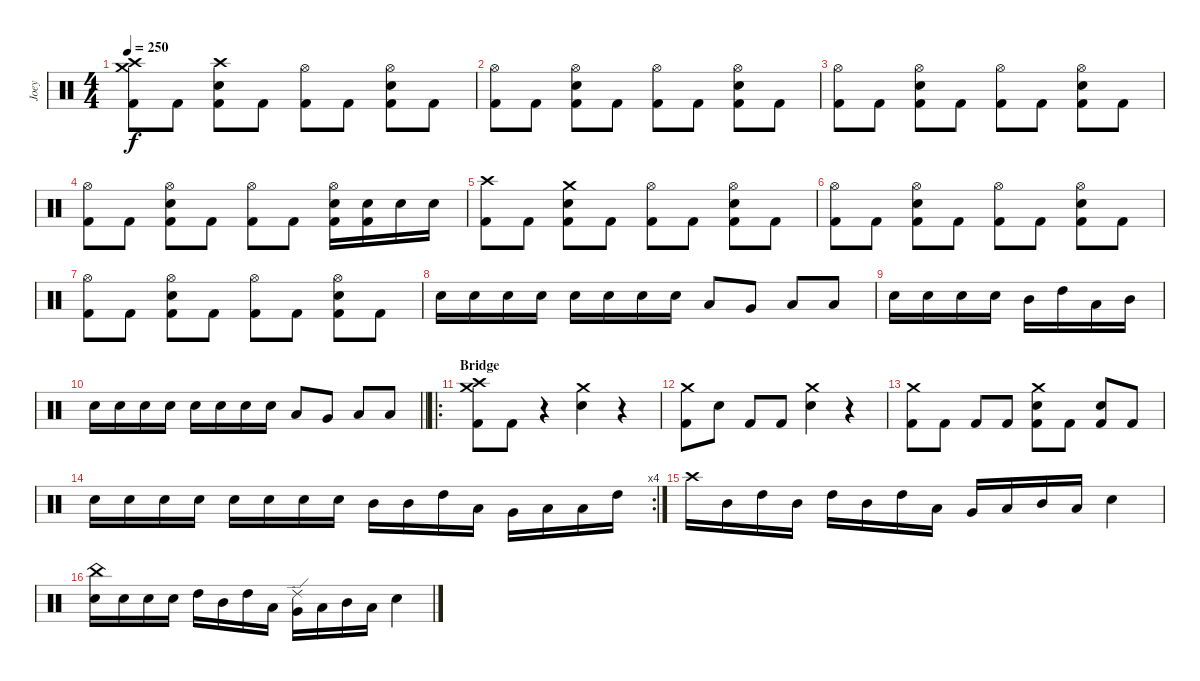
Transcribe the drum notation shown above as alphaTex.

\track ("Joey" "Joey") {instrument percussion}
\staff {score}
\articulation defaults
\ts (4 4)
\tempo 250
\clef neutral
\ks c
("Crash high (hit)" "Crash medium (hit)" "Kick (hit) 2").8{dy f} "Kick (hit) 2".8 ("Crash high (hit)" "Snare (hit) 2" "Kick (hit) 2").8 "Kick (hit) 2".8 ("Hi-Hat (open)" "Kick (hit) 2").8 "Kick (hit) 2".8 ("Hi-Hat (open)" "Snare (hit) 2" "Kick (hit) 2").8 "Kick (hit) 2".8 |
("Hi-Hat (open)" "Kick (hit) 2").8 "Kick (hit) 2".8 ("Hi-Hat (open)" "Snare (hit) 2" "Kick (hit) 2").8 "Kick (hit) 2".8 ("Hi-Hat (open)" "Kick (hit) 2").8 "Kick (hit) 2".8 ("Hi-Hat (open)" "Snare (hit) 2" "Kick (hit) 2").8 "Kick (hit) 2".8 |
("Hi-Hat (open)" "Kick (hit) 2").8 "Kick (hit) 2".8 ("Hi-Hat (open)" "Snare (hit) 2" "Kick (hit) 2").8 "Kick (hit) 2".8 ("Hi-Hat (open)" "Kick (hit) 2").8 "Kick (hit) 2".8 ("Hi-Hat (open)" "Snare (hit) 2" "Kick (hit) 2").8 "Kick (hit) 2".8 |
("Hi-Hat (open)" "Kick (hit) 2").8 "Kick (hit) 2".8 ("Hi-Hat (open)" "Snare (hit) 2" "Kick (hit) 2").8 "Kick (hit) 2".8 ("Hi-Hat (open)" "Kick (hit) 2").8 "Kick (hit) 2".8 ("Hi-Hat (open)" "Snare (hit) 2" "Kick (hit) 2").16 ("Snare (hit) 2" "Kick (hit) 2").16 "Snare (hit) 2".16 "Snare (hit) 2".16 |
("Crash high (hit)" "Kick (hit) 2").8 "Kick (hit) 2".8 ("Crash medium (hit)" "Snare (hit) 2" "Kick (hit) 2").8 "Kick (hit) 2".8 ("Hi-Hat (open)" "Kick (hit) 2").8 "Kick (hit) 2".8 ("Hi-Hat (open)" "Snare (hit) 2" "Kick (hit) 2").8 "Kick (hit) 2".8 |
("Hi-Hat (open)" "Kick (hit) 2").8 "Kick (hit) 2".8 ("Hi-Hat (open)" "Snare (hit) 2" "Kick (hit) 2").8 "Kick (hit) 2".8 ("Hi-Hat (open)" "Kick (hit) 2").8 "Kick (hit) 2".8 ("Hi-Hat (open)" "Snare (hit) 2" "Kick (hit) 2").8 "Kick (hit) 2".8 |
("Hi-Hat (open)" "Kick (hit) 2").8 "Kick (hit) 2".8 ("Hi-Hat (open)" "Snare (hit) 2" "Kick (hit) 2").8 "Kick (hit) 2".8 ("Hi-Hat (open)" "Kick (hit) 2").8 "Kick (hit) 2".8 ("Hi-Hat (open)" "Snare (hit) 2" "Kick (hit) 2").8 "Kick (hit) 2".8 |
"Snare (hit) 2".16 "Snare (hit) 2".16 "Snare (hit) 2".16 "Snare (hit) 2".16 "Snare (hit) 2".16 "Snare (hit) 2".16 "Snare (hit) 2".16 "Snare (hit) 2".16 "Low Tom (hit)".8 "Very Low Tom (hit)".8 "Low Floor Tom (hit)".8 "Low Tom (hit)".8 |
"Snare (hit) 2".16 "Snare (hit) 2".16 "Snare (hit) 2".16 "Snare (hit) 2".16 "Mid Tom (hit)".16 "High Tom (hit)".16 "Low Floor Tom (hit)".16 "Mid Tom (hit)".16 |
\barLineRight lightlight "Snare (hit) 2".16 "Snare (hit) 2".16 "Snare (hit) 2".16 "Snare (hit) 2".16 "Snare (hit) 2".16 "Snare (hit) 2".16 "Snare (hit) 2".16 "Snare (hit) 2".16 "Low Tom (hit)".8 "Very Low Tom (hit)".8 "Low Floor Tom (hit)".8 "Low Tom (hit)".8
|
\ro
\section ("" "Bridge")
("Crash high (hit)" "Crash medium (hit)" "Kick (hit) 2").8 "Kick (hit) 2".8 r.4 ("Crash medium (hit)" "Snare (hit) 2").4 r.4 |
("Crash medium (hit)" "Kick (hit) 2").8 "Snare (hit) 2".8 "Kick (hit) 2".8 "Kick (hit) 2".8 ("Crash medium (hit)" "Snare (hit) 2").4 r.4 |
("Crash medium (hit)" "Kick (hit) 2").8 "Kick (hit) 2".8 "Kick (hit) 2".8 "Kick (hit) 2".8 ("Crash medium (hit)" "Snare (hit) 2" "Kick (hit) 2").8 "Kick (hit) 2".8 ("Snare (hit) 2" "Kick (hit) 2").8 "Kick (hit) 2".8 |
\rc 4 "Snare (hit) 2".16 "Snare (hit) 2".16 "Snare (hit) 2".16 "Snare (hit) 2".16 "Snare (hit) 2".16 "Snare (hit) 2".16 "Snare (hit) 2".16 "Snare (hit) 2".16 "Mid Tom (hit)".16 "Mid Tom (hit)".16 "High Tom (hit)".16 "Low Tom (hit)".16 "Very Low Tom (hit)".16 "Low Floor Tom (hit)".16 "Low Tom (hit)".16 "High Tom (hit)".16
|
"Crash high (hit)".16 "Mid Tom (hit)".16 "High Tom (hit)".16 "Mid Tom (hit)".16 "High Tom (hit)".16 "Mid Tom (hit)".16 "High Tom (hit)".16 "Low Tom (hit)".16 "Very Low Tom (hit)".16 "Low Floor Tom (hit)".16 "Mid Tom (hit)".16 "Low Floor Tom (hit)".16 "Snare (hit) 2".4 |
("China (hit)" "Snare (hit) 2").16 "Snare (hit) 2".16 "Snare (hit) 2".16 "Snare (hit) 2".16 "High Tom (hit)".16 "Mid Tom (hit)".16 "High Tom (hit)".16 "Low Tom (hit)".16 ("Ride (edge) 2" "Very Low Tom (hit)").16 "Low Floor Tom (hit)".16 "Mid Tom (hit)".16 "Low Floor Tom (hit)".16 "Snare (hit) 2".4
